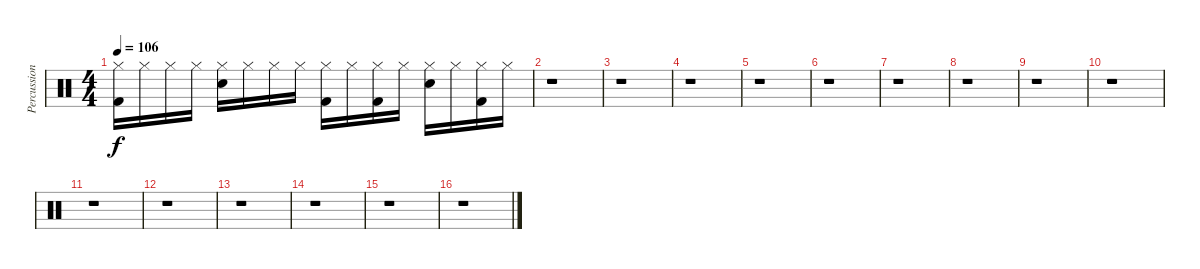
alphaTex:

\track ("Percussion" "Percussion") {instrument percussion}
\staff {score}
\articulation defaults
\ts (4 4)
\tempo 106
\clef neutral
\ks c
("Hi-Hat (closed)" "Kick (hit) 2").16{dy f} "Hi-Hat (closed)".16 "Hi-Hat (closed)".16 "Hi-Hat (closed)".16 ("Hi-Hat (closed)" "Snare (hit) 2").16 "Hi-Hat (closed)".16 "Hi-Hat (closed)".16 "Hi-Hat (closed)".16 ("Hi-Hat (closed)" "Kick (hit) 2").16 "Hi-Hat (closed)".16 ("Hi-Hat (closed)" "Kick (hit) 2").16 "Hi-Hat (closed)".16 ("Hi-Hat (closed)" "Snare (hit) 2").16 "Hi-Hat (closed)".16 ("Hi-Hat (closed)" "Kick (hit) 2").16 "Hi-Hat (closed)".16 |
r.1 |
r.1 |
r.1 |
r.1 |
r.1 |
r.1 |
r.1 |
r.1 |
r.1 |
r.1 |
r.1 |
r.1 |
r.1 |
r.1 |
r.1
